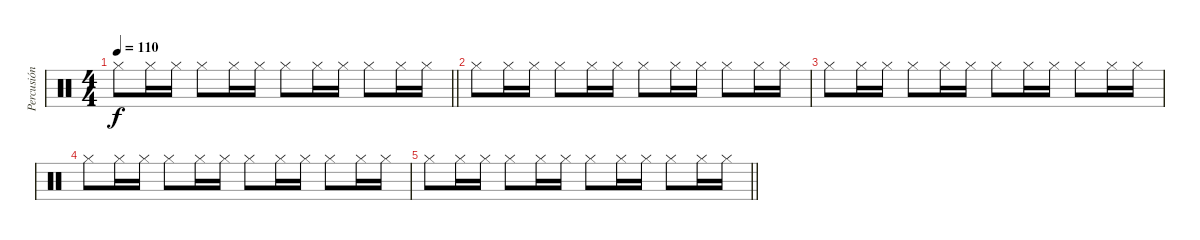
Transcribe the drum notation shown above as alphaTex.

\track ("Percusión" "Percusión") {instrument percussion}
\staff {score}
\articulation defaults
\ts (4 4)
\tempo 110
\clef neutral
\barLineRight lightlight
\ks c "Hi-Hat (closed)".8{dy f} "Hi-Hat (closed)".16 "Hi-Hat (closed)".16 "Hi-Hat (closed)".8 "Hi-Hat (closed)".16 "Hi-Hat (closed)".16 "Hi-Hat (closed)".8 "Hi-Hat (closed)".16 "Hi-Hat (closed)".16 "Hi-Hat (closed)".8 "Hi-Hat (closed)".16 "Hi-Hat (closed)".16
|
"Hi-Hat (closed)".8 "Hi-Hat (closed)".16 "Hi-Hat (closed)".16 "Hi-Hat (closed)".8 "Hi-Hat (closed)".16 "Hi-Hat (closed)".16 "Hi-Hat (closed)".8 "Hi-Hat (closed)".16 "Hi-Hat (closed)".16 "Hi-Hat (closed)".8 "Hi-Hat (closed)".16 "Hi-Hat (closed)".16 |
"Hi-Hat (closed)".8 "Hi-Hat (closed)".16 "Hi-Hat (closed)".16 "Hi-Hat (closed)".8 "Hi-Hat (closed)".16 "Hi-Hat (closed)".16 "Hi-Hat (closed)".8 "Hi-Hat (closed)".16 "Hi-Hat (closed)".16 "Hi-Hat (closed)".8 "Hi-Hat (closed)".16 "Hi-Hat (closed)".16 |
"Hi-Hat (closed)".8 "Hi-Hat (closed)".16 "Hi-Hat (closed)".16 "Hi-Hat (closed)".8 "Hi-Hat (closed)".16 "Hi-Hat (closed)".16 "Hi-Hat (closed)".8 "Hi-Hat (closed)".16 "Hi-Hat (closed)".16 "Hi-Hat (closed)".8 "Hi-Hat (closed)".16 "Hi-Hat (closed)".16 |
\barLineRight lightlight "Hi-Hat (closed)".8 "Hi-Hat (closed)".16 "Hi-Hat (closed)".16 "Hi-Hat (closed)".8 "Hi-Hat (closed)".16 "Hi-Hat (closed)".16 "Hi-Hat (closed)".8 "Hi-Hat (closed)".16 "Hi-Hat (closed)".16 "Hi-Hat (closed)".8 "Hi-Hat (closed)".16 "Hi-Hat (closed)".16
